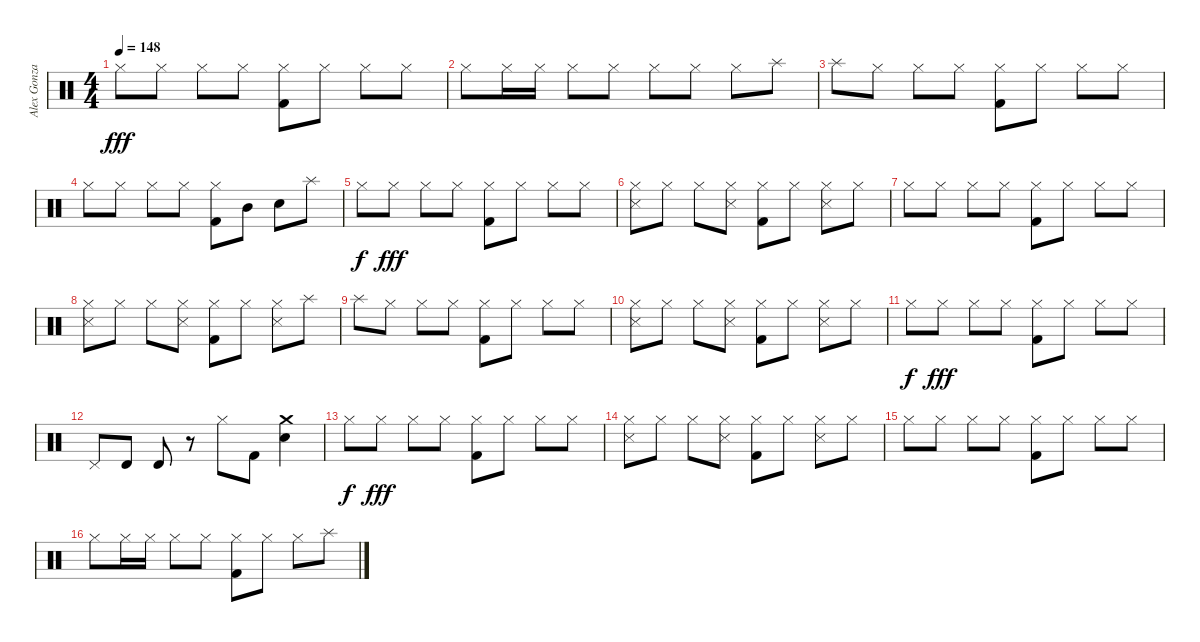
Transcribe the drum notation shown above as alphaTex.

\track ("Alex Gonzalez" "Alex Gonza") {instrument percussion}
\staff {score}
\articulation defaults
\ts (4 4)
\tempo 148
\clef neutral
\ks c "Hi-Hat (closed)".8{dy fff} "Hi-Hat (closed)".8 "Hi-Hat (closed)".8 "Hi-Hat (closed)".8
("Hi-Hat (closed)" "Kick (hit) 2").8 "Hi-Hat (closed)".8 "Hi-Hat (closed)".8 "Hi-Hat (closed)".8 |
"Hi-Hat (closed)".8 "Hi-Hat (closed)".16 "Hi-Hat (closed)".16 "Hi-Hat (closed)".8 "Hi-Hat (closed)".8 "Hi-Hat (closed)".8 "Hi-Hat (closed)".8 "Hi-Hat (closed)".8 "Splash (hit)".8 |
"Splash (hit)".8 "Hi-Hat (closed)".8 "Hi-Hat (closed)".8 "Hi-Hat (closed)".8 ("Hi-Hat (closed)" "Kick (hit) 2").8 "Hi-Hat (closed)".8 "Hi-Hat (closed)".8 "Hi-Hat (closed)".8 |
"Hi-Hat (closed)".8 "Hi-Hat (closed)".8 "Hi-Hat (closed)".8 "Hi-Hat (closed)".8 ("Hi-Hat (closed)" "Kick (hit) 2").8 "Mid Tom (hit)".8 "Snare (hit) 2".8 "Splash (hit)".8 |
"Hi-Hat (closed)".8{dy f} "Hi-Hat (closed)".8{dy fff} "Hi-Hat (closed)".8 "Hi-Hat (closed)".8 ("Hi-Hat (closed)" "Kick (hit) 2").8 "Hi-Hat (closed)".8 "Hi-Hat (closed)".8 "Hi-Hat (closed)".8 |
("Hi-Hat (closed)" "Snare (side stick) 3").8 "Hi-Hat (closed)".8 "Hi-Hat (closed)".8 ("Hi-Hat (closed)" "Snare (side stick) 3").8 ("Hi-Hat (closed)" "Kick (hit) 2").8 "Hi-Hat (closed)".8 ("Hi-Hat (closed)" "Snare (side stick) 3").8 "Hi-Hat (closed)".8 |
"Hi-Hat (closed)".8 "Hi-Hat (closed)".8 "Hi-Hat (closed)".8 "Hi-Hat (closed)".8 ("Hi-Hat (closed)" "Kick (hit) 2").8 "Hi-Hat (closed)".8 "Hi-Hat (closed)".8 "Hi-Hat (closed)".8 |
("Hi-Hat (closed)" "Snare (side stick) 3").8 "Hi-Hat (closed)".8 "Hi-Hat (closed)".8 ("Hi-Hat (closed)" "Snare (side stick) 3").8 ("Hi-Hat (closed)" "Kick (hit) 2").8 "Hi-Hat (closed)".8 ("Hi-Hat (closed)" "Snare (side stick) 3").8 "Splash (hit)".8 |
"Splash (hit)".8 "Hi-Hat (closed)".8 "Hi-Hat (closed)".8 "Hi-Hat (closed)".8 ("Hi-Hat (closed)" "Kick (hit) 2").8 "Hi-Hat (closed)".8 "Hi-Hat (closed)".8 "Hi-Hat (closed)".8 |
("Hi-Hat (closed)" "Snare (side stick) 3").8 "Hi-Hat (closed)".8 "Hi-Hat (closed)".8 ("Hi-Hat (closed)" "Snare (side stick) 3").8 ("Hi-Hat (closed)" "Kick (hit) 2").8 "Hi-Hat (closed)".8 ("Hi-Hat (closed)" "Snare (side stick) 3").8 "Hi-Hat (closed)".8 |
"Hi-Hat (closed)".8{dy f} "Hi-Hat (closed)".8{dy fff} "Hi-Hat (closed)".8 "Hi-Hat (closed)".8 ("Hi-Hat (closed)" "Kick (hit) 2").8 "Hi-Hat (closed)".8 "Hi-Hat (closed)".8 "Hi-Hat (closed)".8 |
"Pedal Hi-Hat (hit)".8 "Timbale high (hit)".8 "Timbale high (hit)".8 r.8 "Hi-Hat (closed)".8 "Kick (hit) 2".8 ("Crash medium (hit)" "Snare (hit) 2").4 |
"Hi-Hat (closed)".8{dy f} "Hi-Hat (closed)".8{dy fff} "Hi-Hat (closed)".8 "Hi-Hat (closed)".8 ("Hi-Hat (closed)" "Kick (hit) 2").8 "Hi-Hat (closed)".8 "Hi-Hat (closed)".8 "Hi-Hat (closed)".8 |
("Hi-Hat (closed)" "Snare (side stick) 3").8 "Hi-Hat (closed)".8 "Hi-Hat (closed)".8 ("Hi-Hat (closed)" "Snare (side stick) 3").8 ("Hi-Hat (closed)" "Kick (hit) 2").8 "Hi-Hat (closed)".8 ("Hi-Hat (closed)" "Snare (side stick) 3").8 "Hi-Hat (closed)".8 |
"Hi-Hat (closed)".8 "Hi-Hat (closed)".8 "Hi-Hat (closed)".8 "Hi-Hat (closed)".8 ("Hi-Hat (closed)" "Kick (hit) 2").8 "Hi-Hat (closed)".8 "Hi-Hat (closed)".8 "Hi-Hat (closed)".8 |
"Hi-Hat (closed)".8 "Hi-Hat (closed)".16 "Hi-Hat (closed)".16 "Hi-Hat (closed)".8 "Hi-Hat (closed)".8 ("Hi-Hat (closed)" "Kick (hit) 2").8 "Hi-Hat (closed)".8 "Hi-Hat (closed)".8 "Splash (hit)".8
